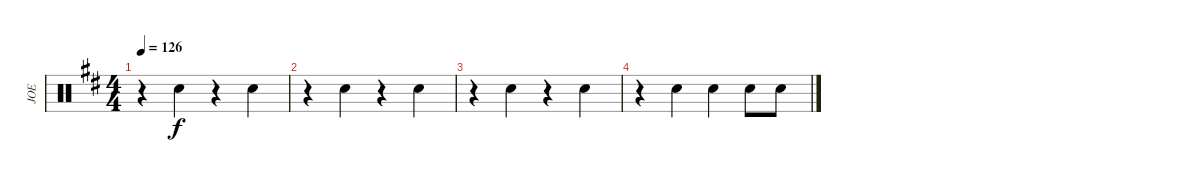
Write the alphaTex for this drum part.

\track ("JOE" "JOE") {instrument percussion}
\staff {score}
\articulation defaults
\ts (4 4)
\tempo 126
\clef neutral
\ks d
r.4{dy f volume 4} "Hand Clap (hit)".4 r.4 "Hand Clap (hit)".4 |
r.4{volume 3} "Hand Clap (hit)".4 r.4 "Hand Clap (hit)".4 |
r.4{volume 2} "Hand Clap (hit)".4 r.4 "Hand Clap (hit)".4 |
r.4 "Hand Clap (hit)".4 "Hand Clap (hit)".4 "Hand Clap (hit)".8 "Hand Clap (hit)".8
